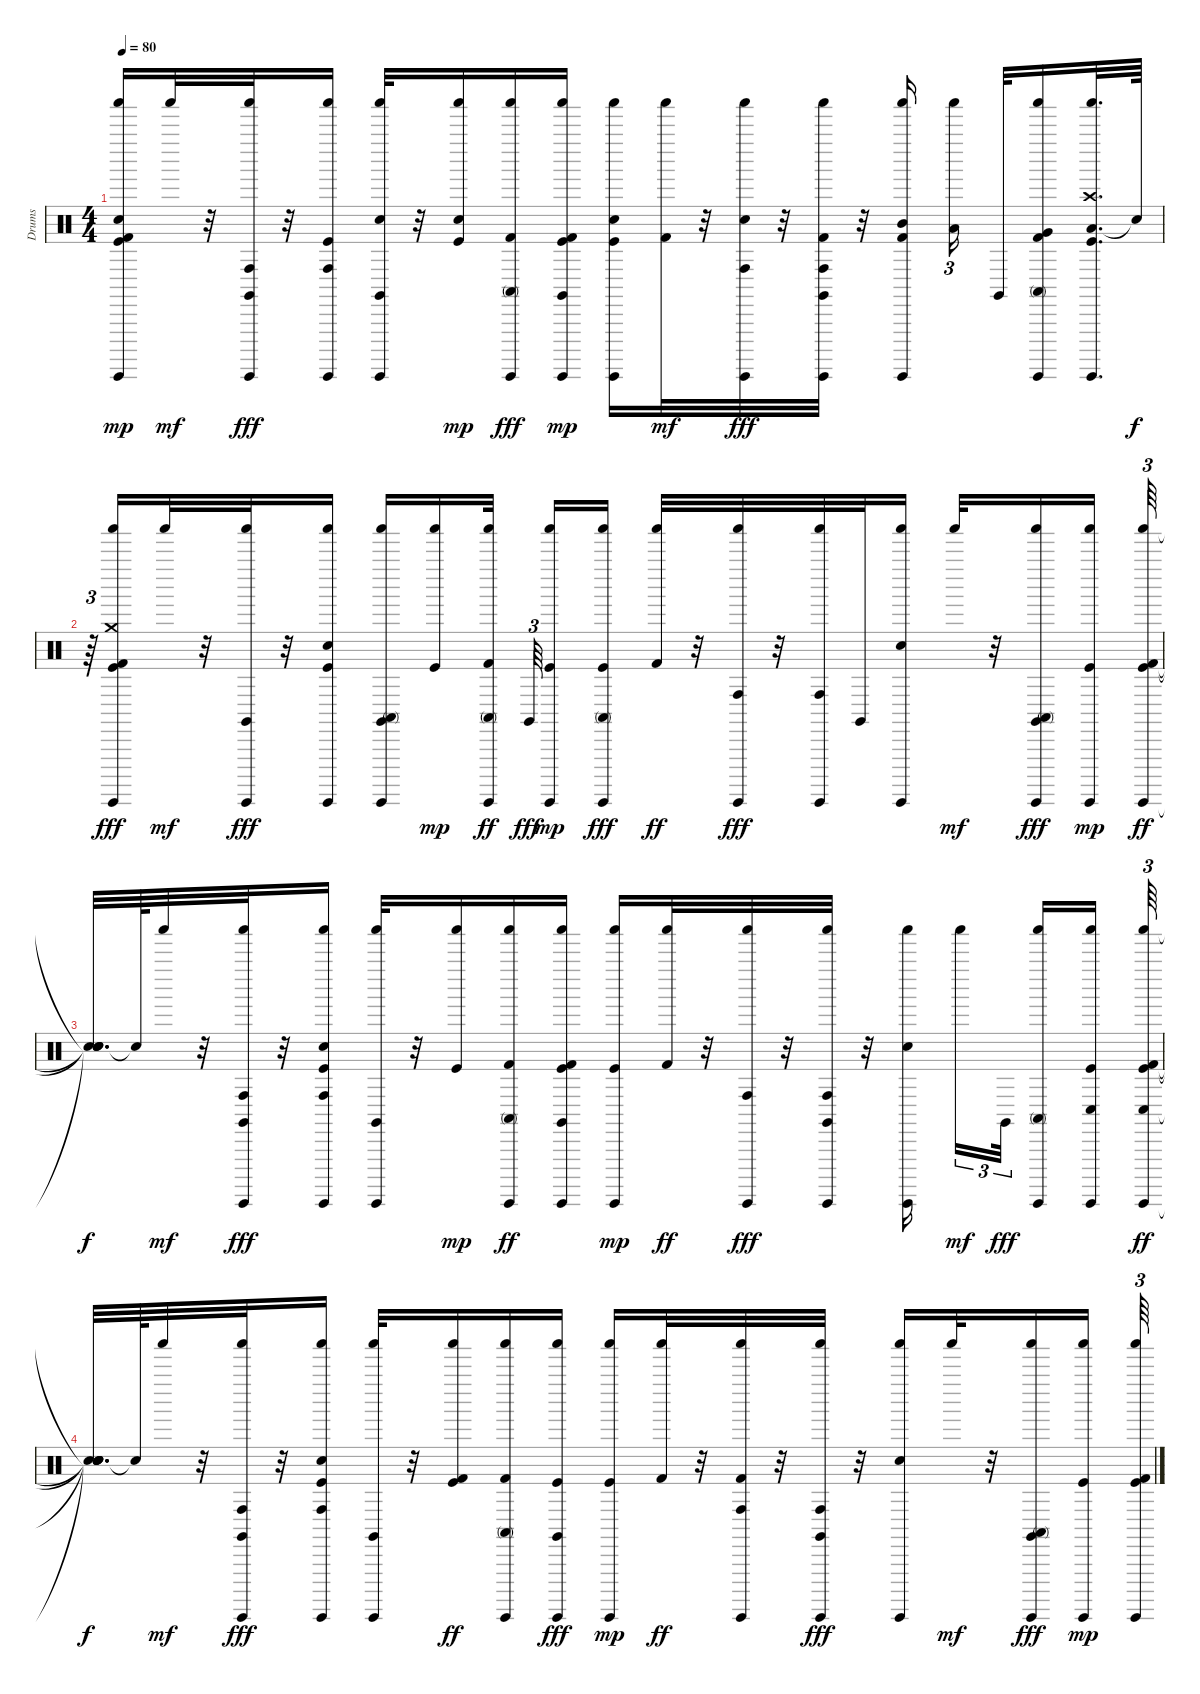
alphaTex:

\track ("Drums" "Drums") {instrument percussion}
\staff {score}
\articulation defaults
\ts (4 4)
\tempo 80
\clef neutral
\ks c
("Kick (hit) 2" "Electric Snare (hit)" "Guiro (hit)" "Shaker (hit)" "Kick (hit)").16{dy mp volume 12} "Shaker (hit)".32{dy mf volume 12} r.32 ("Claves (hit)" "Guiro (hit)" "Shaker (hit)" "Conga high (hit)").32{dy fff volume 12} r.32 ("Guiro (hit)" "Shaker (hit)" "Kick (hit)" "Conga high (hit)").16{volume 12} ("Electric Snare (hit)" "Claves (hit)" "Guiro (hit)" "Shaker (hit)").32{volume 12} r.32 ("Electric Snare (hit)" "Shaker (hit)" "Kick (hit)").16{dy mp volume 12} ("Kick (hit) 2" "Guiro (hit)" "Shaker (hit)" "Conga high (mute)").16{dy fff volume 12} ("Kick (hit) 2" "Claves (hit)" "Guiro (hit)" "Shaker (hit)" "Kick (hit)").16{dy mp volume 12} ("Electric Snare (hit)" "Guiro (hit)" "Shaker (hit)" "Kick (hit)").16{volume 11} ("Kick (hit) 2" "Shaker (hit)").32{dy mf volume 11} r.32 ("Electric Snare (hit)" "Guiro (hit)" "Shaker (hit)" "Conga high (hit)").32{dy fff volume 11} r.32 ("Kick (hit) 2" "Claves (hit)" "Guiro (hit)" "Shaker (hit)" "Conga high (hit)").32{volume 11} r.32 ("Kick (hit) 2" "Mid Tom (hit)" "Guiro (hit)" "Shaker (hit)").16{volume 11} ("Shaker (hit)" "Low Tom (hit)").16{tu (3 2) volume 10} "Claves (hit)".32{volume 10} ("Kick (hit) 2" "Guiro (hit)" "Shaker (hit)" "Conga high (mute)" "Very Low Tom (hit)").16 ("Low Floor Tom (hit)" "Guiro (hit)" "Shaker (hit)" "Kick (hit)" "Crash high (hit)").32{d volume 10} "Snare (hit)"{t}.64{dy f} |
r.64{tu (3 2)} ("Guiro (hit)" "Shaker (hit)" "Kick (hit)" "Kick (hit) 2" "Crash medium (hit)").16{dy fff volume 10} "Shaker (hit)".32{dy mf volume 10} r.32 ("Guiro (hit)" "Shaker (hit)" "Claves (hit)").32{dy fff volume 10} r.32 ("Guiro (hit)" "Shaker (hit)" "Kick (hit)" "Electric Snare (hit)").16{volume 10} ("Claves (hit)" "Guiro (hit)" "Shaker (hit)" "Conga high (mute)").16{volume 10} ("Shaker (hit)" "Kick (hit)").16{dy mp volume 9} ("Guiro (hit)" "Shaker (hit)" "Conga high (mute)" "Kick (hit) 2").32{dy ff volume 9} "Claves (hit)".64{tu (3 2) dy fff volume 9} ("Guiro (hit)" "Shaker (hit)" "Kick (hit)").16{dy mp} ("Guiro (hit)" "Shaker (hit)" "Kick (hit)" "Conga high (mute)").16{dy fff volume 9} ("Shaker (hit)" "Kick (hit) 2").32{dy ff volume 9} r.32 ("Guiro (hit)" "Shaker (hit)" "Conga high (hit)").32{dy fff volume 8} r.32 ("Guiro (hit)" "Shaker (hit)" "Conga high (hit)").32{volume 8} "Claves (hit)".32 ("Guiro (hit)" "Shaker (hit)" "Electric Snare (hit)").16{volume 8} "Shaker (hit)".32{dy mf volume 8} r.32 ("Claves (hit)" "Guiro (hit)" "Shaker (hit)" "Conga high (mute)").16{dy fff volume 8} ("Guiro (hit)" "Shaker (hit)" "Kick (hit)").16{dy mp volume 8} ("Guiro (hit)" "Shaker (hit)" "Kick (hit)" "Kick (hit) 2").64{tu (3 2) dy ff volume 8} |
("Snare (hit)"{t} "Snare (hit)"{t} "Snare (hit)"{t} "Snare (hit)"{t}).32{d dy f} "Snare (hit)"{t}.64 "Shaker (hit)".32{dy mf volume 7} r.32 ("Claves (hit)" "Guiro (hit)" "Shaker (hit)" "Conga high (hit)").32{dy fff volume 7} r.32 ("Guiro (hit)" "Shaker (hit)" "Kick (hit)" "Conga high (hit)" "Electric Snare (hit)").16{volume 7} ("Claves (hit)" "Guiro (hit)" "Shaker (hit)").32{volume 7} r.32 ("Shaker (hit)" "Kick (hit)").16{dy mp volume 7} ("Guiro (hit)" "Shaker (hit)" "Conga high (mute)" "Kick (hit) 2").16{dy ff volume 7} ("Claves (hit)" "Guiro (hit)" "Shaker (hit)" "Kick (hit)" "Kick (hit) 2").16{volume 6} ("Guiro (hit)" "Shaker (hit)" "Kick (hit)").16{dy mp volume 6} ("Shaker (hit)" "Kick (hit) 2").32{dy ff volume 6} r.32 ("Guiro (hit)" "Shaker (hit)" "Conga high (hit)").32{dy fff volume 6} r.32 ("Claves (hit)" "Guiro (hit)" "Shaker (hit)" "Conga high (hit)").32{volume 6} r.32 ("Guiro (hit)" "Shaker (hit)" "Electric Snare (hit)").16{volume 6} "Shaker (hit)".16{tu (3 2) dy mf volume 6} "Claves (hit)".32{tu (3 2) dy fff volume 5} ("Guiro (hit)" "Shaker (hit)" "Conga high (mute)").16 ("Guiro (hit)" "Shaker (hit)" "Kick (hit)" "Conga low (hit)").16{volume 5} ("Guiro (hit)" "Shaker (hit)" "Kick (hit)" "Conga low (hit)" "Kick (hit) 2").64{tu (3 2) dy ff volume 5} |
("Snare (hit)"{t} "Snare (hit)"{t} "Snare (hit)"{t} "Snare (hit)"{t} "Snare (hit)"{t}).32{d dy f} "Snare (hit)"{t}.64 "Shaker (hit)".32{dy mf volume 5} r.32 ("Guiro (hit)" "Shaker (hit)" "Conga high (hit)" "Claves (hit)").32{dy fff volume 5} r.32 ("Guiro (hit)" "Shaker (hit)" "Kick (hit)" "Conga high (hit)" "Electric Snare (hit)").16{volume 5} ("Claves (hit)" "Guiro (hit)" "Shaker (hit)").32{volume 4} r.32 ("Shaker (hit)" "Kick (hit)" "Kick (hit) 2").16{dy ff volume 4} ("Guiro (hit)" "Shaker (hit)" "Conga high (mute)" "Kick (hit) 2").16{volume 4} ("Guiro (hit)" "Shaker (hit)" "Kick (hit)" "Claves (hit)").16{dy fff volume 4} ("Guiro (hit)" "Shaker (hit)" "Kick (hit)").16{dy mp volume 4} ("Shaker (hit)" "Kick (hit) 2").32{dy ff volume 4} r.32 ("Guiro (hit)" "Shaker (hit)" "Conga high (hit)" "Kick (hit) 2").32{volume 4} r.32 ("Claves (hit)" "Guiro (hit)" "Shaker (hit)" "Conga high (hit)").32{dy fff volume 3} r.32 ("Guiro (hit)" "Shaker (hit)" "Electric Snare (hit)").16{volume 3} "Shaker (hit)".32{dy mf volume 3} r.32 ("Claves (hit)" "Guiro (hit)" "Shaker (hit)" "Conga high (mute)").16{dy fff volume 3} ("Guiro (hit)" "Shaker (hit)" "Kick (hit)").16{dy mp volume 3} ("Kick (hit) 2" "Guiro (hit)" "Shaker (hit)" "Kick (hit)").64{tu (3 2) volume 2}
